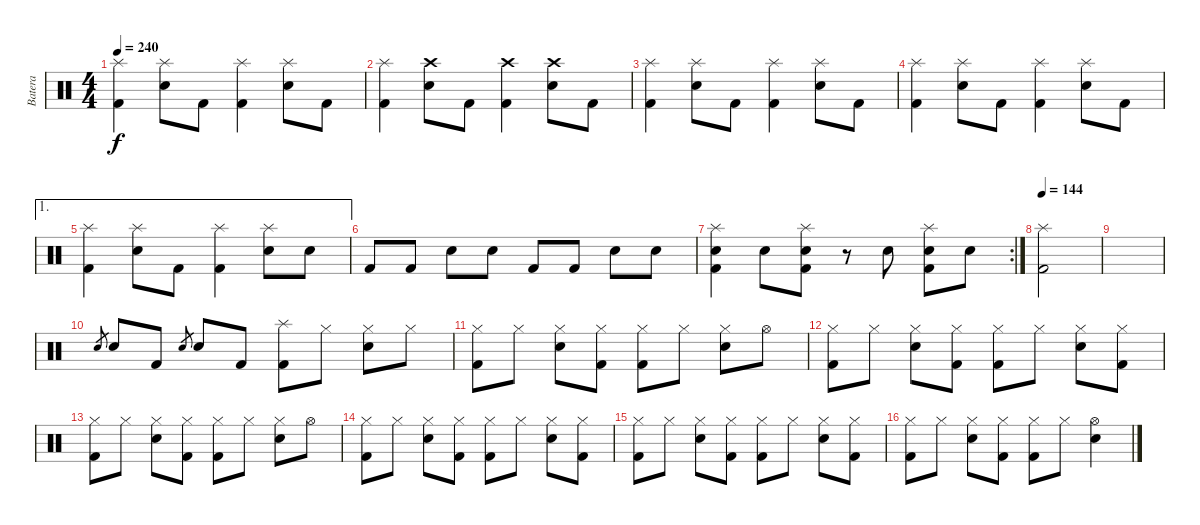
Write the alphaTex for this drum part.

\track ("Batera" "Batera") {instrument percussion}
\staff {score}
\articulation defaults
\ts (4 4)
\tempo 240
\clef neutral
\ks c
("Splash (hit)" "Kick (hit) 2").4{dy f} ("Splash (hit)" "Snare (hit) 2").8 "Kick (hit) 2".8 ("Splash (hit)" "Kick (hit) 2").4 ("Splash (hit)" "Snare (hit) 2").8 "Kick (hit) 2".8 |
("Splash (hit)" "Kick (hit) 2").4 ("Crash high (hit)" "Snare (hit) 2").8 "Kick (hit) 2".8 ("Crash high (hit)" "Kick (hit) 2").4 ("Crash high (hit)" "Snare (hit) 2").8 "Kick (hit) 2".8 |
("Splash (hit)" "Kick (hit) 2").4 ("Splash (hit)" "Snare (hit) 2").8 "Kick (hit) 2".8 ("Splash (hit)" "Kick (hit) 2").4 ("Splash (hit)" "Snare (hit) 2").8 "Kick (hit) 2".8 |
("Splash (hit)" "Kick (hit) 2").4 ("Splash (hit)" "Snare (hit) 2").8 "Kick (hit) 2".8 ("Splash (hit)" "Kick (hit) 2").4 ("Splash (hit)" "Snare (hit) 2").8 "Kick (hit) 2".8 |
\ae 1
("Splash (hit)" "Kick (hit) 2").4 ("Splash (hit)" "Snare (hit) 2").8 "Kick (hit) 2".8 ("Splash (hit)" "Kick (hit) 2").4 ("Splash (hit)" "Snare (hit) 2").8 "Snare (hit) 2".8 |
"Kick (hit) 2".8 "Kick (hit) 2".8 "Snare (hit) 2".8 "Snare (hit) 2".8 "Kick (hit) 2".8 "Kick (hit) 2".8 "Snare (hit) 2".8 "Snare (hit) 2".8 |
\rc 2
("Splash (hit)" "Snare (hit) 2" "Kick (hit) 2").4 "Snare (hit) 2".8 ("Splash (hit)" "Snare (hit) 2" "Kick (hit) 2").8 r.8 "Snare (hit) 2".8 ("Splash (hit)" "Snare (hit) 2" "Kick (hit) 2").8 "Snare (hit) 2".8 |
\tempo 144
("Splash (hit)" "Kick (hit) 2").2 |
|
"Snare (hit) 2".8{gr} "Snare (hit) 2".8 "Kick (hit) 2".8 "Snare (hit) 2".8{gr} "Snare (hit) 2".8 "Kick (hit) 2".8 ("Splash (hit)" "Kick (hit) 2").8 "Hi-Hat (closed)".8 ("Hi-Hat (closed)" "Snare (hit) 2").8 "Hi-Hat (closed)".8 |
("Hi-Hat (closed)" "Kick (hit) 2").8 "Hi-Hat (closed)".8 ("Hi-Hat (closed)" "Snare (hit) 2").8 ("Hi-Hat (closed)" "Kick (hit) 2").8 ("Hi-Hat (closed)" "Kick (hit) 2").8 "Hi-Hat (closed)".8 ("Hi-Hat (closed)" "Snare (hit) 2").8 "Hi-Hat (open)".8 |
("Hi-Hat (closed)" "Kick (hit) 2").8 "Hi-Hat (closed)".8 ("Hi-Hat (closed)" "Snare (hit) 2").8 ("Hi-Hat (closed)" "Kick (hit) 2").8 ("Hi-Hat (closed)" "Kick (hit) 2").8 "Hi-Hat (closed)".8 ("Hi-Hat (closed)" "Snare (hit) 2").8 ("Hi-Hat (closed)" "Kick (hit) 2").8 |
("Hi-Hat (closed)" "Kick (hit) 2").8 "Hi-Hat (closed)".8 ("Hi-Hat (closed)" "Snare (hit) 2").8 ("Hi-Hat (closed)" "Kick (hit) 2").8 ("Hi-Hat (closed)" "Kick (hit) 2").8 "Hi-Hat (closed)".8 ("Hi-Hat (closed)" "Snare (hit) 2").8 "Hi-Hat (open)".8 |
("Hi-Hat (closed)" "Kick (hit) 2").8 "Hi-Hat (closed)".8 ("Hi-Hat (closed)" "Snare (hit) 2").8 ("Hi-Hat (closed)" "Kick (hit) 2").8 ("Hi-Hat (closed)" "Kick (hit) 2").8 "Hi-Hat (closed)".8 ("Hi-Hat (closed)" "Snare (hit) 2").8 ("Hi-Hat (closed)" "Kick (hit) 2").8 |
("Hi-Hat (closed)" "Kick (hit) 2").8 "Hi-Hat (closed)".8 ("Hi-Hat (closed)" "Snare (hit) 2").8 ("Hi-Hat (closed)" "Kick (hit) 2").8 ("Hi-Hat (closed)" "Kick (hit) 2").8 "Hi-Hat (closed)".8 ("Hi-Hat (closed)" "Snare (hit) 2").8 ("Hi-Hat (closed)" "Kick (hit) 2").8 |
("Hi-Hat (closed)" "Kick (hit) 2").8 "Hi-Hat (closed)".8 ("Hi-Hat (closed)" "Snare (hit) 2").8 ("Hi-Hat (closed)" "Kick (hit) 2").8 ("Hi-Hat (closed)" "Kick (hit) 2").8 "Hi-Hat (closed)".8 ("Hi-Hat (open)" "Snare (hit) 2").4
